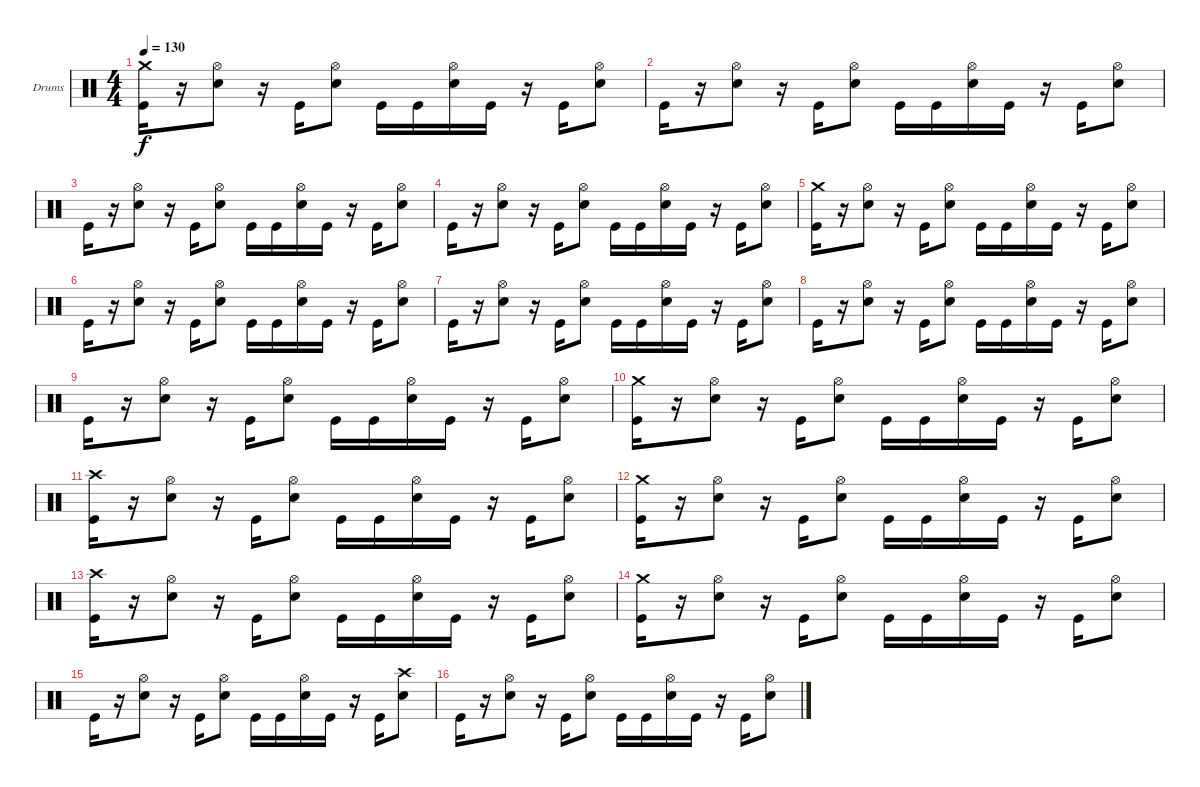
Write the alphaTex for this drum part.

\bracketExtendMode groupsimilarinstruments
\firstSystemTrackNameOrientation horizontal
\otherSystemsTrackNameOrientation horizontal
\track ("Drumkit" "Drums") {instrument percussion}
\staff {score}
\articulation defaults
\ts (4 4)
\tempo 130
\clef neutral
\ks c
("Kick (hit)" "Crash medium (hit)").16{dy f} r.16 ("Snare (hit) 2" "Hi-Hat (open)").8 r.16 "Kick (hit)".16 ("Snare (hit) 2" "Hi-Hat (open)").8 "Kick (hit)".16 "Kick (hit)".16 ("Snare (hit) 2" "Hi-Hat (open)").16 "Kick (hit)".16 r.16 "Kick (hit)".16 ("Snare (hit) 2" "Hi-Hat (open)").8 |
"Kick (hit)".16 r.16 ("Snare (hit) 2" "Hi-Hat (open)").8 r.16 "Kick (hit)".16 ("Snare (hit) 2" "Hi-Hat (open)").8 "Kick (hit)".16 "Kick (hit)".16 ("Snare (hit) 2" "Hi-Hat (open)").16 "Kick (hit)".16 r.16 "Kick (hit)".16 ("Snare (hit) 2" "Hi-Hat (open)").8 |
"Kick (hit)".16 r.16 ("Snare (hit) 2" "Hi-Hat (open)").8 r.16 "Kick (hit)".16 ("Snare (hit) 2" "Hi-Hat (open)").8 "Kick (hit)".16 "Kick (hit)".16 ("Snare (hit) 2" "Hi-Hat (open)").16 "Kick (hit)".16 r.16 "Kick (hit)".16 ("Snare (hit) 2" "Hi-Hat (open)").8 |
"Kick (hit)".16 r.16 ("Snare (hit) 2" "Hi-Hat (open)").8 r.16 "Kick (hit)".16 ("Snare (hit) 2" "Hi-Hat (open)").8 "Kick (hit)".16 "Kick (hit)".16 ("Snare (hit) 2" "Hi-Hat (open)").16 "Kick (hit)".16 r.16 "Kick (hit)".16 ("Snare (hit) 2" "Hi-Hat (open)").8 |
("Kick (hit)" "Crash medium (hit)").16 r.16 ("Snare (hit) 2" "Hi-Hat (open)").8 r.16 "Kick (hit)".16 ("Snare (hit) 2" "Hi-Hat (open)").8 "Kick (hit)".16 "Kick (hit)".16 ("Snare (hit) 2" "Hi-Hat (open)").16 "Kick (hit)".16 r.16 "Kick (hit)".16 ("Snare (hit) 2" "Hi-Hat (open)").8 |
"Kick (hit)".16 r.16 ("Snare (hit) 2" "Hi-Hat (open)").8 r.16 "Kick (hit)".16 ("Snare (hit) 2" "Hi-Hat (open)").8 "Kick (hit)".16 "Kick (hit)".16 ("Snare (hit) 2" "Hi-Hat (open)").16 "Kick (hit)".16 r.16 "Kick (hit)".16 ("Snare (hit) 2" "Hi-Hat (open)").8 |
"Kick (hit)".16 r.16 ("Snare (hit) 2" "Hi-Hat (open)").8 r.16 "Kick (hit)".16 ("Snare (hit) 2" "Hi-Hat (open)").8 "Kick (hit)".16 "Kick (hit)".16 ("Snare (hit) 2" "Hi-Hat (open)").16 "Kick (hit)".16 r.16 "Kick (hit)".16 ("Snare (hit) 2" "Hi-Hat (open)").8 |
"Kick (hit)".16 r.16 ("Snare (hit) 2" "Hi-Hat (open)").8 r.16 "Kick (hit)".16 ("Snare (hit) 2" "Hi-Hat (open)").8 "Kick (hit)".16 "Kick (hit)".16 ("Snare (hit) 2" "Hi-Hat (open)").16 "Kick (hit)".16 r.16 "Kick (hit)".16 ("Snare (hit) 2" "Hi-Hat (open)").8 |
"Kick (hit)".16 r.16 ("Snare (hit) 2" "Hi-Hat (open)").8 r.16 "Kick (hit)".16 ("Snare (hit) 2" "Hi-Hat (open)").8 "Kick (hit)".16 "Kick (hit)".16 ("Snare (hit) 2" "Hi-Hat (open)").16 "Kick (hit)".16 r.16 "Kick (hit)".16 ("Snare (hit) 2" "Hi-Hat (open)").8 |
("Kick (hit)" "Crash medium (hit)").16 r.16 ("Snare (hit) 2" "Hi-Hat (open)").8 r.16 "Kick (hit)".16 ("Snare (hit) 2" "Hi-Hat (open)").8 "Kick (hit)".16 "Kick (hit)".16 ("Snare (hit) 2" "Hi-Hat (open)").16 "Kick (hit)".16 r.16 "Kick (hit)".16 ("Snare (hit) 2" "Hi-Hat (open)").8 |
("Kick (hit)" "Crash high (hit)").16 r.16 ("Snare (hit) 2" "Hi-Hat (open)").8 r.16 "Kick (hit)".16 ("Snare (hit) 2" "Hi-Hat (open)").8 "Kick (hit)".16 "Kick (hit)".16 ("Snare (hit) 2" "Hi-Hat (open)").16 "Kick (hit)".16 r.16 "Kick (hit)".16 ("Snare (hit) 2" "Hi-Hat (open)").8 |
("Kick (hit)" "Crash medium (hit)").16 r.16 ("Snare (hit) 2" "Hi-Hat (open)").8 r.16 "Kick (hit)".16 ("Snare (hit) 2" "Hi-Hat (open)").8 "Kick (hit)".16 "Kick (hit)".16 ("Snare (hit) 2" "Hi-Hat (open)").16 "Kick (hit)".16 r.16 "Kick (hit)".16 ("Snare (hit) 2" "Hi-Hat (open)").8 |
("Kick (hit)" "Crash high (hit)").16 r.16 ("Snare (hit) 2" "Hi-Hat (open)").8 r.16 "Kick (hit)".16 ("Snare (hit) 2" "Hi-Hat (open)").8 "Kick (hit)".16 "Kick (hit)".16 ("Snare (hit) 2" "Hi-Hat (open)").16 "Kick (hit)".16 r.16 "Kick (hit)".16 ("Snare (hit) 2" "Hi-Hat (open)").8 |
("Kick (hit)" "Crash medium (hit)").16 r.16 ("Snare (hit) 2" "Hi-Hat (open)").8 r.16 "Kick (hit)".16 ("Snare (hit) 2" "Hi-Hat (open)").8 "Kick (hit)".16 "Kick (hit)".16 ("Snare (hit) 2" "Hi-Hat (open)").16 "Kick (hit)".16 r.16 "Kick (hit)".16 ("Snare (hit) 2" "Hi-Hat (open)").8 |
"Kick (hit)".16 r.16 ("Snare (hit) 2" "Hi-Hat (open)").8 r.16 "Kick (hit)".16 ("Snare (hit) 2" "Hi-Hat (open)").8 "Kick (hit)".16 "Kick (hit)".16 ("Snare (hit) 2" "Hi-Hat (open)").16 "Kick (hit)".16 r.16 "Kick (hit)".16 ("Snare (hit) 2" "Crash high (hit)").8 |
"Kick (hit)".16 r.16 ("Snare (hit) 2" "Hi-Hat (open)").8 r.16 "Kick (hit)".16 ("Snare (hit) 2" "Hi-Hat (open)").8 "Kick (hit)".16 "Kick (hit)".16 ("Snare (hit) 2" "Hi-Hat (open)").16 "Kick (hit)".16 r.16 "Kick (hit)".16 ("Snare (hit) 2" "Hi-Hat (open)").8
